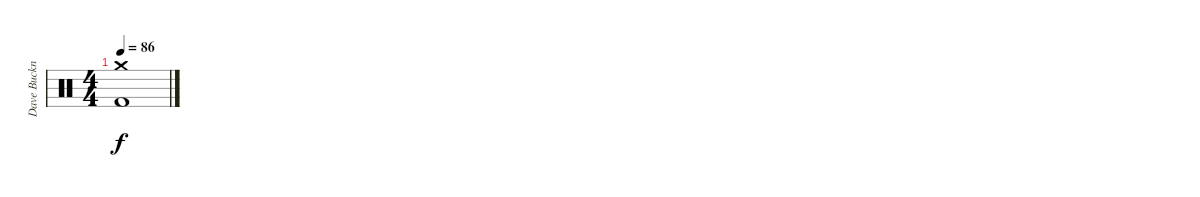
\track ("Dave Buckner - Drums" "Dave Buckn") {instrument percussion}
\staff {score}
\articulation defaults
\ts (4 4)
\tempo 86
\clef neutral
\ks c
("Crash medium (hit)" "Kick (hit) 2").1{dy f}
